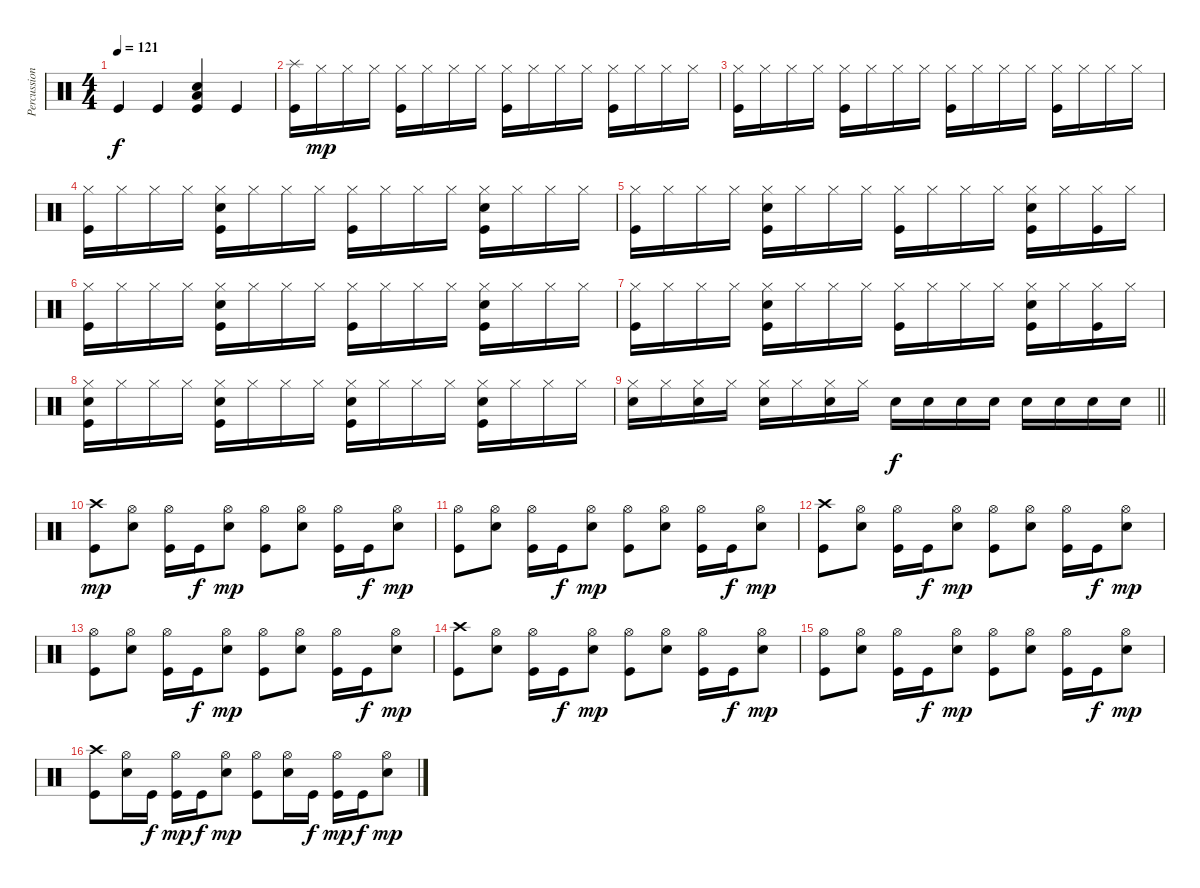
\track ("Percussion" "Percussion") {instrument percussion}
\staff {score}
\articulation defaults
\ts (4 4)
\tempo 121
\clef neutral
\ks c "Kick (hit)".4{dy f} "Kick (hit)".4
("Electric Snare (hit)" "Low Floor Tom (hit)" "Kick (hit)").4 "Kick (hit)".4 |
("Splash (hit)" "Kick (hit)").16 "Hi-Hat (closed)".16{dy mp} "Hi-Hat (closed)".16 "Hi-Hat (closed)".16 ("Hi-Hat (closed)" "Kick (hit)").16 "Hi-Hat (closed)".16 "Hi-Hat (closed)".16 "Hi-Hat (closed)".16 ("Hi-Hat (closed)" "Kick (hit)").16 "Hi-Hat (closed)".16 "Hi-Hat (closed)".16 "Hi-Hat (closed)".16 ("Hi-Hat (closed)" "Kick (hit)").16 "Hi-Hat (closed)".16 "Hi-Hat (closed)".16 "Hi-Hat (closed)".16 |
("Hi-Hat (closed)" "Kick (hit)").16 "Hi-Hat (closed)".16 "Hi-Hat (closed)".16 "Hi-Hat (closed)".16 ("Hi-Hat (closed)" "Kick (hit)").16 "Hi-Hat (closed)".16 "Hi-Hat (closed)".16 "Hi-Hat (closed)".16 ("Hi-Hat (closed)" "Kick (hit)").16 "Hi-Hat (closed)".16 "Hi-Hat (closed)".16 "Hi-Hat (closed)".16 ("Hi-Hat (closed)" "Kick (hit)").16 "Hi-Hat (closed)".16 "Hi-Hat (closed)".16 "Hi-Hat (closed)".16 |
("Hi-Hat (closed)" "Kick (hit)").16 "Hi-Hat (closed)".16 "Hi-Hat (closed)".16 "Hi-Hat (closed)".16 ("Hi-Hat (closed)" "Electric Snare (hit)" "Kick (hit)").16 "Hi-Hat (closed)".16 "Hi-Hat (closed)".16 "Hi-Hat (closed)".16 ("Hi-Hat (closed)" "Kick (hit)").16 "Hi-Hat (closed)".16 "Hi-Hat (closed)".16 "Hi-Hat (closed)".16 ("Hi-Hat (closed)" "Electric Snare (hit)" "Kick (hit)").16 "Hi-Hat (closed)".16 "Hi-Hat (closed)".16 "Hi-Hat (closed)".16 |
("Hi-Hat (closed)" "Kick (hit)").16 "Hi-Hat (closed)".16 "Hi-Hat (closed)".16 "Hi-Hat (closed)".16 ("Hi-Hat (closed)" "Electric Snare (hit)" "Kick (hit)").16 "Hi-Hat (closed)".16 "Hi-Hat (closed)".16 "Hi-Hat (closed)".16 ("Hi-Hat (closed)" "Kick (hit)").16 "Hi-Hat (closed)".16 "Hi-Hat (closed)".16 "Hi-Hat (closed)".16 ("Hi-Hat (closed)" "Electric Snare (hit)" "Kick (hit)").16 "Hi-Hat (closed)".16 ("Hi-Hat (closed)" "Kick (hit)").16 "Hi-Hat (closed)".16 |
("Hi-Hat (closed)" "Kick (hit)").16 "Hi-Hat (closed)".16 "Hi-Hat (closed)".16 "Hi-Hat (closed)".16 ("Hi-Hat (closed)" "Electric Snare (hit)" "Kick (hit)").16 "Hi-Hat (closed)".16 "Hi-Hat (closed)".16 "Hi-Hat (closed)".16 ("Hi-Hat (closed)" "Kick (hit)").16 "Hi-Hat (closed)".16 "Hi-Hat (closed)".16 "Hi-Hat (closed)".16 ("Hi-Hat (closed)" "Electric Snare (hit)" "Kick (hit)").16 "Hi-Hat (closed)".16 "Hi-Hat (closed)".16 "Hi-Hat (closed)".16 |
("Hi-Hat (closed)" "Kick (hit)").16 "Hi-Hat (closed)".16 "Hi-Hat (closed)".16 "Hi-Hat (closed)".16 ("Hi-Hat (closed)" "Electric Snare (hit)" "Kick (hit)").16 "Hi-Hat (closed)".16 "Hi-Hat (closed)".16 "Hi-Hat (closed)".16 ("Hi-Hat (closed)" "Kick (hit)").16 "Hi-Hat (closed)".16 "Hi-Hat (closed)".16 "Hi-Hat (closed)".16 ("Hi-Hat (closed)" "Electric Snare (hit)" "Kick (hit)").16 "Hi-Hat (closed)".16 ("Hi-Hat (closed)" "Kick (hit)").16 "Hi-Hat (closed)".16 |
("Hi-Hat (closed)" "Electric Snare (hit)" "Kick (hit)").16 "Hi-Hat (closed)".16 "Hi-Hat (closed)".16 "Hi-Hat (closed)".16 ("Hi-Hat (closed)" "Electric Snare (hit)" "Kick (hit)").16 "Hi-Hat (closed)".16 "Hi-Hat (closed)".16 "Hi-Hat (closed)".16 ("Hi-Hat (closed)" "Electric Snare (hit)" "Kick (hit)").16 "Hi-Hat (closed)".16 "Hi-Hat (closed)".16 "Hi-Hat (closed)".16 ("Hi-Hat (closed)" "Electric Snare (hit)" "Kick (hit)").16 "Hi-Hat (closed)".16 "Hi-Hat (closed)".16 "Hi-Hat (closed)".16 |
\barLineRight lightlight
("Hi-Hat (closed)" "Electric Snare (hit)").16 "Hi-Hat (closed)".16 ("Hi-Hat (closed)" "Electric Snare (hit)").16 "Hi-Hat (closed)".16 ("Hi-Hat (closed)" "Electric Snare (hit)").16 "Hi-Hat (closed)".16 ("Hi-Hat (closed)" "Electric Snare (hit)").16 "Hi-Hat (closed)".16 "Electric Snare (hit)".16{dy f} "Electric Snare (hit)".16 "Electric Snare (hit)".16 "Electric Snare (hit)".16 "Electric Snare (hit)".16 "Electric Snare (hit)".16 "Electric Snare (hit)".16 "Electric Snare (hit)".16 |
\section ("" "")
("Crash high (hit)" "Kick (hit)").8{dy mp} ("Hi-Hat (open)" "Electric Snare (hit)").8 ("Hi-Hat (open)" "Kick (hit)").16 "Kick (hit)".16{dy f} ("Hi-Hat (open)" "Electric Snare (hit)").8{dy mp} ("Hi-Hat (open)" "Kick (hit)").8 ("Hi-Hat (open)" "Electric Snare (hit)").8 ("Hi-Hat (open)" "Kick (hit)").16 "Kick (hit)".16{dy f} ("Hi-Hat (open)" "Electric Snare (hit)").8{dy mp} |
("Hi-Hat (open)" "Kick (hit)").8 ("Hi-Hat (open)" "Electric Snare (hit)").8 ("Hi-Hat (open)" "Kick (hit)").16 "Kick (hit)".16{dy f} ("Hi-Hat (open)" "Electric Snare (hit)").8{dy mp} ("Hi-Hat (open)" "Kick (hit)").8 ("Hi-Hat (open)" "Electric Snare (hit)").8 ("Hi-Hat (open)" "Kick (hit)").16 "Kick (hit)".16{dy f} ("Hi-Hat (open)" "Electric Snare (hit)").8{dy mp} |
("Crash high (hit)" "Kick (hit)").8 ("Hi-Hat (open)" "Electric Snare (hit)").8 ("Hi-Hat (open)" "Kick (hit)").16 "Kick (hit)".16{dy f} ("Hi-Hat (open)" "Electric Snare (hit)").8{dy mp} ("Hi-Hat (open)" "Kick (hit)").8 ("Hi-Hat (open)" "Electric Snare (hit)").8 ("Hi-Hat (open)" "Kick (hit)").16 "Kick (hit)".16{dy f} ("Hi-Hat (open)" "Electric Snare (hit)").8{dy mp} |
("Hi-Hat (open)" "Kick (hit)").8 ("Hi-Hat (open)" "Electric Snare (hit)").8 ("Hi-Hat (open)" "Kick (hit)").16 "Kick (hit)".16{dy f} ("Hi-Hat (open)" "Electric Snare (hit)").8{dy mp} ("Hi-Hat (open)" "Kick (hit)").8 ("Hi-Hat (open)" "Electric Snare (hit)").8 ("Hi-Hat (open)" "Kick (hit)").16 "Kick (hit)".16{dy f} ("Hi-Hat (open)" "Electric Snare (hit)").8{dy mp} |
("Crash high (hit)" "Kick (hit)").8 ("Hi-Hat (open)" "Electric Snare (hit)").8 ("Hi-Hat (open)" "Kick (hit)").16 "Kick (hit)".16{dy f} ("Hi-Hat (open)" "Electric Snare (hit)").8{dy mp} ("Hi-Hat (open)" "Kick (hit)").8 ("Hi-Hat (open)" "Electric Snare (hit)").8 ("Hi-Hat (open)" "Kick (hit)").16 "Kick (hit)".16{dy f} ("Hi-Hat (open)" "Electric Snare (hit)").8{dy mp} |
("Hi-Hat (open)" "Kick (hit)").8 ("Hi-Hat (open)" "Electric Snare (hit)").8 ("Hi-Hat (open)" "Kick (hit)").16 "Kick (hit)".16{dy f} ("Hi-Hat (open)" "Electric Snare (hit)").8{dy mp} ("Hi-Hat (open)" "Kick (hit)").8 ("Hi-Hat (open)" "Electric Snare (hit)").8 ("Hi-Hat (open)" "Kick (hit)").16 "Kick (hit)".16{dy f} ("Hi-Hat (open)" "Electric Snare (hit)").8{dy mp} |
("Crash high (hit)" "Kick (hit)").8 ("Hi-Hat (open)" "Electric Snare (hit)").16 "Kick (hit)".16{dy f} ("Hi-Hat (open)" "Kick (hit)").16{dy mp} "Kick (hit)".16{dy f} ("Hi-Hat (open)" "Electric Snare (hit)").8{dy mp} ("Hi-Hat (open)" "Kick (hit)").8 ("Hi-Hat (open)" "Electric Snare (hit)").16 "Kick (hit)".16{dy f} ("Hi-Hat (open)" "Kick (hit)").16{dy mp} "Kick (hit)".16{dy f} ("Hi-Hat (open)" "Electric Snare (hit)").8{dy mp}
